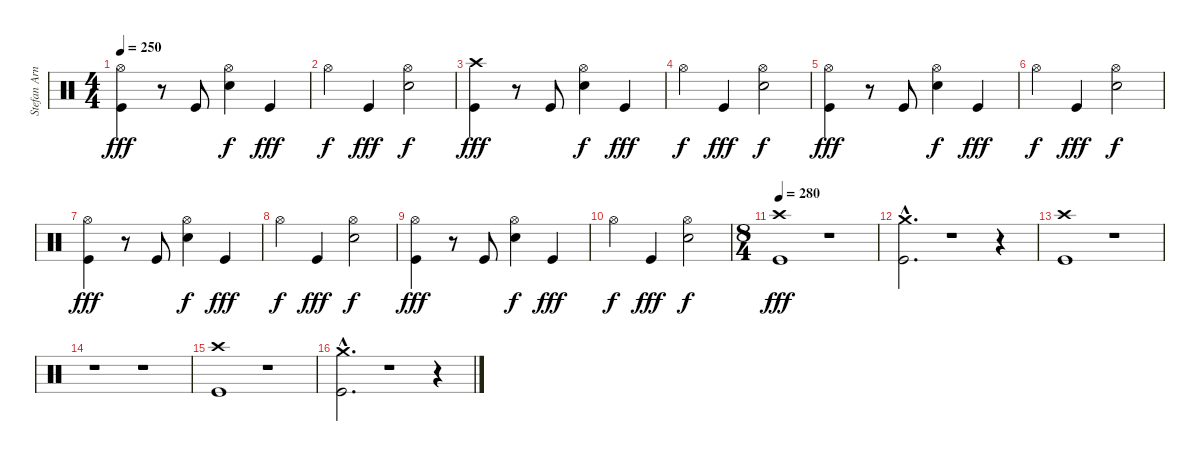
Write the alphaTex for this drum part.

\track ("Stefan Arnold (Batería)" "Stefan Arn") {instrument percussion}
\staff {score}
\articulation defaults
\ts (4 4)
\tempo 250
\clef neutral
\ks c
("Hi-Hat (open)" "Kick (hit)").4{dy fff} r.8 "Kick (hit)".8 ("Hi-Hat (open)" "Electric Snare (hit)").4{dy f} "Kick (hit)".4{dy fff} |
"Hi-Hat (open)".4{dy f} "Kick (hit)".4{dy fff} ("Hi-Hat (open)" "Electric Snare (hit)").2{dy f} |
("Crash high (hit)" "Kick (hit)").4{dy fff} r.8 "Kick (hit)".8 ("Hi-Hat (open)" "Electric Snare (hit)").4{dy f} "Kick (hit)".4{dy fff} |
"Hi-Hat (open)".4{dy f} "Kick (hit)".4{dy fff} ("Hi-Hat (open)" "Electric Snare (hit)").2{dy f} |
("Hi-Hat (open)" "Kick (hit)").4{dy fff} r.8 "Kick (hit)".8 ("Hi-Hat (open)" "Electric Snare (hit)").4{dy f} "Kick (hit)".4{dy fff} |
"Hi-Hat (open)".4{dy f} "Kick (hit)".4{dy fff} ("Hi-Hat (open)" "Electric Snare (hit)").2{dy f} |
("Hi-Hat (open)" "Kick (hit)").4{dy fff} r.8 "Kick (hit)".8 ("Hi-Hat (open)" "Electric Snare (hit)").4{dy f} "Kick (hit)".4{dy fff} |
"Hi-Hat (open)".4{dy f} "Kick (hit)".4{dy fff} ("Hi-Hat (open)" "Electric Snare (hit)").2{dy f} |
("Hi-Hat (open)" "Kick (hit)").4{dy fff} r.8 "Kick (hit)".8 ("Hi-Hat (open)" "Electric Snare (hit)").4{dy f} "Kick (hit)".4{dy fff} |
"Hi-Hat (open)".4{dy f} "Kick (hit)".4{dy fff} ("Hi-Hat (open)" "Electric Snare (hit)").2{dy f} |
\ts (8 4)
\tempo 280
("Crash high (hit)" "Kick (hit)").1{dy fff} r.1 |
("Crash medium (hit)"{hac} "Kick (hit)"{hac}).2{d} r.1 r.4 |
("Crash high (hit)" "Kick (hit)").1 r.1 |
r.1 r.1 |
("Crash high (hit)" "Kick (hit)").1 r.1 |
("Crash medium (hit)"{hac} "Kick (hit)"{hac}).2{d} r.1 r.4
